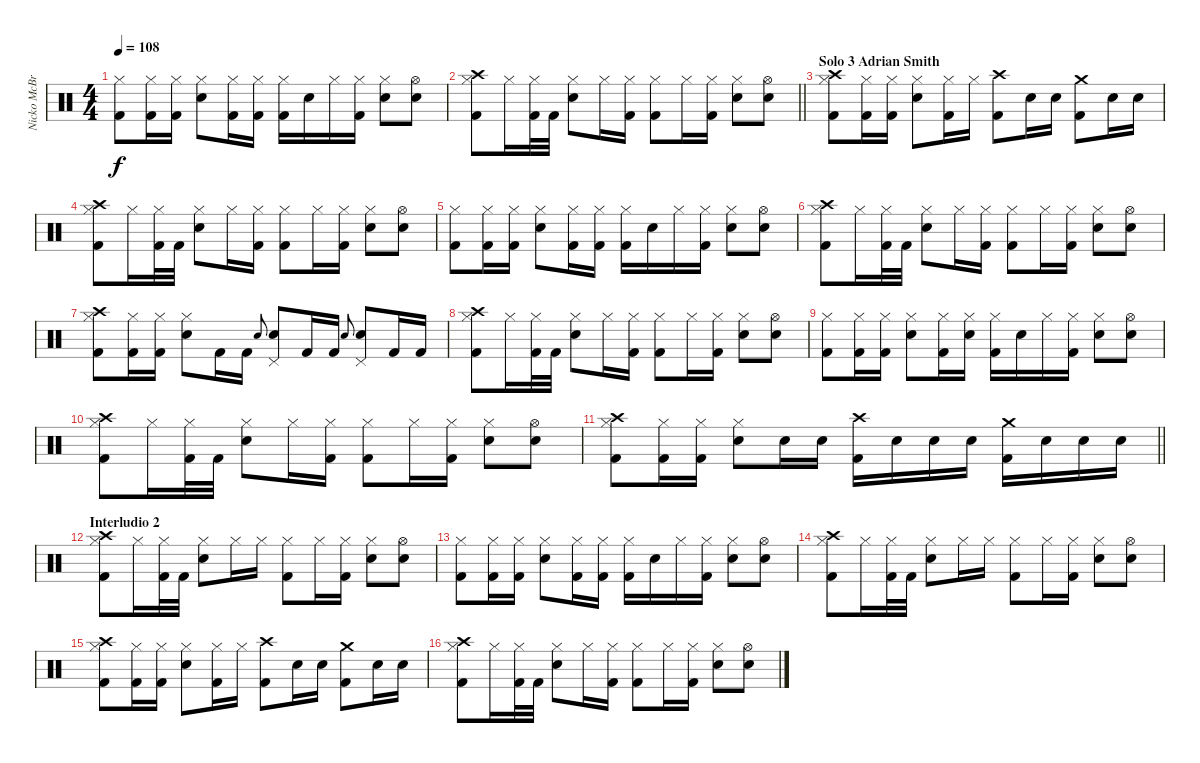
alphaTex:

\track ("Nicko McBrain" "Nicko McBr") {instrument percussion}
\staff {score}
\articulation defaults
\ts (4 4)
\tempo 108
\clef neutral
\ks c
("Hi-Hat (closed)" "Kick (hit) 2").8{dy f} ("Hi-Hat (closed)" "Kick (hit) 2").16 ("Hi-Hat (closed)" "Kick (hit) 2").16 ("Hi-Hat (closed)" "Snare (hit) 2").8 ("Hi-Hat (closed)" "Kick (hit) 2").16 ("Hi-Hat (closed)" "Kick (hit) 2").16 ("Hi-Hat (closed)" "Kick (hit) 2").16 "Snare (hit) 2".16 "Hi-Hat (closed)".16 ("Hi-Hat (closed)" "Kick (hit) 2").16 ("Hi-Hat (closed)" "Snare (hit) 2").8 ("Hi-Hat (open)" "Snare (hit) 2").8 |
\barLineRight lightlight
("Hi-Hat (closed)" "Crash high (hit)" "Kick (hit) 2").8 "Hi-Hat (closed)".16 ("Hi-Hat (closed)" "Kick (hit) 2").32 "Kick (hit) 2".32 ("Hi-Hat (closed)" "Snare (hit) 2").8 "Hi-Hat (closed)".16 ("Hi-Hat (closed)" "Kick (hit) 2").16 ("Hi-Hat (closed)" "Kick (hit) 2").8 "Hi-Hat (closed)".16 ("Hi-Hat (closed)" "Kick (hit) 2").16 ("Hi-Hat (closed)" "Snare (hit) 2").8 ("Hi-Hat (open)" "Snare (hit) 2").8 |
\section ("" "Solo 3 Adrian Smith")
("Hi-Hat (closed)" "Crash high (hit)" "Kick (hit) 2").8 ("Hi-Hat (closed)" "Kick (hit) 2").16 ("Hi-Hat (closed)" "Kick (hit) 2").16 ("Hi-Hat (closed)" "Snare (hit) 2").8 ("Hi-Hat (closed)" "Kick (hit) 2").16 "Hi-Hat (closed)".16 ("Crash high (hit)" "Kick (hit) 2").8 "Snare (hit) 2".16 "Snare (hit) 2".16 ("Crash medium (hit)" "Kick (hit) 2").8 "Snare (hit) 2".16 "Snare (hit) 2".16 |
("Hi-Hat (closed)" "Crash high (hit)" "Kick (hit) 2").8 "Hi-Hat (closed)".16 ("Hi-Hat (closed)" "Kick (hit) 2").32 "Kick (hit) 2".32 ("Hi-Hat (closed)" "Snare (hit) 2").8 "Hi-Hat (closed)".16 ("Hi-Hat (closed)" "Kick (hit) 2").16 ("Hi-Hat (closed)" "Kick (hit) 2").8 "Hi-Hat (closed)".16 ("Hi-Hat (closed)" "Kick (hit) 2").16 ("Hi-Hat (closed)" "Snare (hit) 2").8 ("Hi-Hat (open)" "Snare (hit) 2").8 |
("Hi-Hat (closed)" "Kick (hit) 2").8 ("Hi-Hat (closed)" "Kick (hit) 2").16 ("Hi-Hat (closed)" "Kick (hit) 2").16 ("Hi-Hat (closed)" "Snare (hit) 2").8 ("Hi-Hat (closed)" "Kick (hit) 2").16 ("Hi-Hat (closed)" "Kick (hit) 2").16 ("Hi-Hat (closed)" "Kick (hit) 2").16 "Snare (hit) 2".16 "Hi-Hat (closed)".16 ("Hi-Hat (closed)" "Kick (hit) 2").16 ("Hi-Hat (closed)" "Snare (hit) 2").8 ("Hi-Hat (open)" "Snare (hit) 2").8 |
("Hi-Hat (closed)" "Crash high (hit)" "Kick (hit) 2").8 "Hi-Hat (closed)".16 ("Hi-Hat (closed)" "Kick (hit) 2").32 "Kick (hit) 2".32 ("Hi-Hat (closed)" "Snare (hit) 2").8 "Hi-Hat (closed)".16 ("Hi-Hat (closed)" "Kick (hit) 2").16 ("Hi-Hat (closed)" "Kick (hit) 2").8 "Hi-Hat (closed)".16 ("Hi-Hat (closed)" "Kick (hit) 2").16 ("Hi-Hat (closed)" "Snare (hit) 2").8 ("Hi-Hat (open)" "Snare (hit) 2").8 |
("Hi-Hat (closed)" "Crash high (hit)" "Kick (hit) 2").8 ("Hi-Hat (closed)" "Kick (hit) 2").16 ("Hi-Hat (closed)" "Kick (hit) 2").16 ("Hi-Hat (closed)" "Snare (hit) 2").8 "Kick (hit) 2".16 "Kick (hit) 2".16 "Snare (hit) 2".8{gr onbeat} ("Pedal Hi-Hat (hit)" "Snare (hit) 2").8 "Kick (hit) 2".16 "Kick (hit) 2".16 "Snare (hit) 2".8{gr onbeat} ("Pedal Hi-Hat (hit)" "Snare (hit) 2").8 "Kick (hit) 2".16 "Kick (hit) 2".16 |
("Hi-Hat (closed)" "Crash high (hit)" "Kick (hit) 2").8 "Hi-Hat (closed)".16 ("Hi-Hat (closed)" "Kick (hit) 2").32 "Kick (hit) 2".32 ("Hi-Hat (closed)" "Snare (hit) 2").8 "Hi-Hat (closed)".16 ("Hi-Hat (closed)" "Kick (hit) 2").16 ("Hi-Hat (closed)" "Kick (hit) 2").8 "Hi-Hat (closed)".16 ("Hi-Hat (closed)" "Kick (hit) 2").16 ("Hi-Hat (closed)" "Snare (hit) 2").8 ("Hi-Hat (open)" "Snare (hit) 2").8 |
("Hi-Hat (closed)" "Kick (hit) 2").8 ("Hi-Hat (closed)" "Kick (hit) 2").16 ("Hi-Hat (closed)" "Kick (hit) 2").16 ("Hi-Hat (closed)" "Snare (hit) 2").8 ("Hi-Hat (closed)" "Kick (hit) 2").16 ("Hi-Hat (closed)" "Snare (hit) 2").16 ("Hi-Hat (closed)" "Kick (hit) 2").16 "Snare (hit) 2".16 "Hi-Hat (closed)".16 ("Hi-Hat (closed)" "Kick (hit) 2").16 ("Hi-Hat (closed)" "Snare (hit) 2").8 ("Hi-Hat (open)" "Snare (hit) 2").8 |
("Hi-Hat (closed)" "Crash high (hit)" "Kick (hit) 2").8 "Hi-Hat (closed)".16 ("Hi-Hat (closed)" "Kick (hit) 2").32 "Kick (hit) 2".32 ("Hi-Hat (closed)" "Snare (hit) 2").8 "Hi-Hat (closed)".16 ("Hi-Hat (closed)" "Kick (hit) 2").16 ("Hi-Hat (closed)" "Kick (hit) 2").8 "Hi-Hat (closed)".16 ("Hi-Hat (closed)" "Kick (hit) 2").16 ("Hi-Hat (closed)" "Snare (hit) 2").8 ("Hi-Hat (open)" "Snare (hit) 2").8 |
\barLineRight lightlight
("Hi-Hat (closed)" "Crash high (hit)" "Kick (hit) 2").8 ("Hi-Hat (closed)" "Kick (hit) 2").16 ("Hi-Hat (closed)" "Kick (hit) 2").16 ("Hi-Hat (closed)" "Snare (hit) 2").8 "Snare (hit) 2".16 "Snare (hit) 2".16 ("Crash high (hit)" "Kick (hit) 2").16 "Snare (hit) 2".16 "Snare (hit) 2".16 "Snare (hit) 2".16 ("Crash medium (hit)" "Kick (hit) 2").16 "Snare (hit) 2".16 "Snare (hit) 2".16 "Snare (hit) 2".16 |
\section ("" "Interludio 2")
("Hi-Hat (closed)" "Crash high (hit)" "Kick (hit) 2").8 "Hi-Hat (closed)".16 ("Hi-Hat (closed)" "Kick (hit) 2").32 "Kick (hit) 2".32 ("Hi-Hat (closed)" "Snare (hit) 2").8 "Hi-Hat (closed)".16 "Hi-Hat (closed)".16 ("Hi-Hat (closed)" "Kick (hit) 2").8 "Hi-Hat (closed)".16 ("Hi-Hat (closed)" "Kick (hit) 2").16 ("Hi-Hat (closed)" "Snare (hit) 2").8 ("Hi-Hat (open)" "Snare (hit) 2").8 |
("Hi-Hat (closed)" "Kick (hit) 2").8 ("Hi-Hat (closed)" "Kick (hit) 2").16 ("Hi-Hat (closed)" "Kick (hit) 2").16 ("Hi-Hat (closed)" "Snare (hit) 2").8 ("Hi-Hat (closed)" "Kick (hit) 2").16 ("Hi-Hat (closed)" "Kick (hit) 2").16 ("Hi-Hat (closed)" "Kick (hit) 2").16 "Snare (hit) 2".16 "Hi-Hat (closed)".16 ("Hi-Hat (closed)" "Kick (hit) 2").16 ("Hi-Hat (closed)" "Snare (hit) 2").8 ("Hi-Hat (open)" "Snare (hit) 2").8 |
("Hi-Hat (closed)" "Crash high (hit)" "Kick (hit) 2").8 "Hi-Hat (closed)".16 ("Hi-Hat (closed)" "Kick (hit) 2").32 "Kick (hit) 2".32 ("Hi-Hat (closed)" "Snare (hit) 2").8 "Hi-Hat (closed)".16 "Hi-Hat (closed)".16 ("Hi-Hat (closed)" "Kick (hit) 2").8 "Hi-Hat (closed)".16 ("Hi-Hat (closed)" "Kick (hit) 2").16 ("Hi-Hat (closed)" "Snare (hit) 2").8 ("Hi-Hat (open)" "Snare (hit) 2").8 |
("Hi-Hat (closed)" "Crash high (hit)" "Kick (hit) 2").8 ("Hi-Hat (closed)" "Kick (hit) 2").16 ("Hi-Hat (closed)" "Kick (hit) 2").16 ("Hi-Hat (closed)" "Snare (hit) 2").8 ("Hi-Hat (closed)" "Kick (hit) 2").16 "Hi-Hat (closed)".16 ("Crash high (hit)" "Kick (hit) 2").8 "Snare (hit) 2".16 "Snare (hit) 2".16 ("Crash medium (hit)" "Kick (hit) 2").8 "Snare (hit) 2".16 "Snare (hit) 2".16 |
("Hi-Hat (closed)" "Crash high (hit)" "Kick (hit) 2").8 "Hi-Hat (closed)".16 ("Hi-Hat (closed)" "Kick (hit) 2").32 "Kick (hit) 2".32 ("Hi-Hat (closed)" "Snare (hit) 2").8 "Hi-Hat (closed)".16 ("Hi-Hat (closed)" "Kick (hit) 2").16 ("Hi-Hat (closed)" "Kick (hit) 2").8 "Hi-Hat (closed)".16 ("Hi-Hat (closed)" "Kick (hit) 2").16 ("Hi-Hat (closed)" "Snare (hit) 2").8 ("Hi-Hat (open)" "Snare (hit) 2").8
